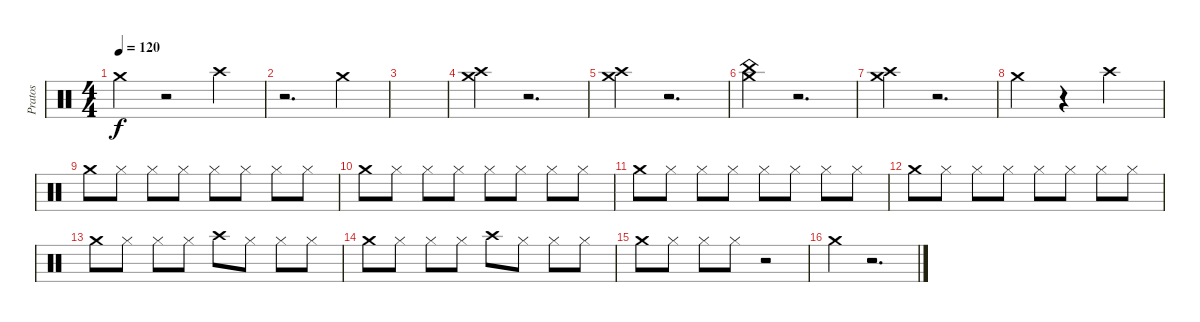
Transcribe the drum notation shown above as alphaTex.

\track ("Pratos" "Pratos") {instrument percussion}
\staff {score}
\articulation defaults
\ts (4 4)
\tempo 120
\clef neutral
\ks c "Crash medium (hit)".4{dy f}
r.2 "Crash high (hit)".4 |
r.2{d} "Crash medium (hit)".4 |
|
("Crash medium (hit)" "Crash high (hit)").4 r.2{d} |
("Crash medium (hit)" "Crash high (hit)").4 r.2{d} |
("Crash medium (hit)" "China (hit)").4 r.2{d} |
("Crash high (hit)" "Crash medium (hit)").4 r.2{d} |
"Crash medium (hit)".4 r.4 "Crash high (hit)".2 |
"Crash medium (hit)".8 "Hi-Hat (closed)".8 "Hi-Hat (closed)".8 "Hi-Hat (closed)".8 "Hi-Hat (closed)".8 "Hi-Hat (closed)".8 "Hi-Hat (closed)".8 "Hi-Hat (closed)".8 |
"Crash medium (hit)".8 "Hi-Hat (closed)".8 "Hi-Hat (closed)".8 "Hi-Hat (closed)".8 "Hi-Hat (closed)".8 "Hi-Hat (closed)".8 "Hi-Hat (closed)".8 "Hi-Hat (closed)".8 |
"Crash medium (hit)".8 "Hi-Hat (closed)".8 "Hi-Hat (closed)".8 "Hi-Hat (closed)".8 "Hi-Hat (closed)".8 "Hi-Hat (closed)".8 "Hi-Hat (closed)".8 "Hi-Hat (closed)".8 |
"Crash medium (hit)".8 "Hi-Hat (closed)".8 "Hi-Hat (closed)".8 "Hi-Hat (closed)".8 "Hi-Hat (closed)".8 "Hi-Hat (closed)".8 "Hi-Hat (closed)".8 "Hi-Hat (closed)".8 |
"Crash medium (hit)".8 "Hi-Hat (closed)".8 "Hi-Hat (closed)".8 "Hi-Hat (closed)".8 "Crash high (hit)".8 "Hi-Hat (closed)".8 "Hi-Hat (closed)".8 "Hi-Hat (closed)".8 |
"Crash medium (hit)".8 "Hi-Hat (closed)".8 "Hi-Hat (closed)".8 "Hi-Hat (closed)".8 "Crash high (hit)".8 "Hi-Hat (closed)".8 "Hi-Hat (closed)".8 "Hi-Hat (closed)".8 |
"Crash medium (hit)".8 "Hi-Hat (closed)".8 "Hi-Hat (closed)".8 "Hi-Hat (closed)".8 r.2 |
"Crash medium (hit)".4 r.2{d}
